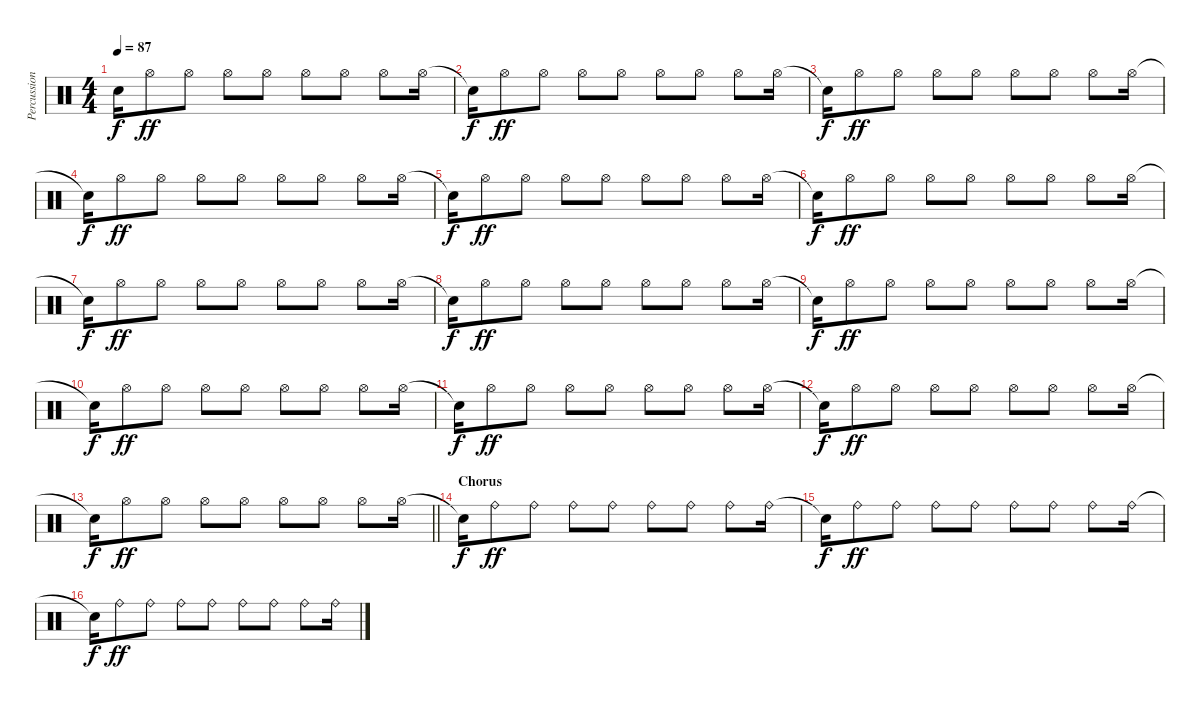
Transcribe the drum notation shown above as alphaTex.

\track ("Percussion" "Percussion") {instrument percussion}
\staff {score}
\articulation defaults
\ts (4 4)
\tempo 87
\clef neutral
\ks c "Snare (hit)"{t}.16{dy f} "Hi-Hat (open)".8{dy ff} "Hi-Hat (open)".8 "Hi-Hat (open)".8 "Hi-Hat (open)".8 "Hi-Hat (open)".8 "Hi-Hat (open)".8 "Hi-Hat (open)".8 "Hi-Hat (open)".16
|
"Snare (hit)"{t}.16{dy f} "Hi-Hat (open)".8{dy ff} "Hi-Hat (open)".8 "Hi-Hat (open)".8 "Hi-Hat (open)".8 "Hi-Hat (open)".8 "Hi-Hat (open)".8 "Hi-Hat (open)".8 "Hi-Hat (open)".16 |
"Snare (hit)"{t}.16{dy f} "Hi-Hat (open)".8{dy ff} "Hi-Hat (open)".8 "Hi-Hat (open)".8 "Hi-Hat (open)".8 "Hi-Hat (open)".8 "Hi-Hat (open)".8 "Hi-Hat (open)".8 "Hi-Hat (open)".16 |
"Snare (hit)"{t}.16{dy f} "Hi-Hat (open)".8{dy ff} "Hi-Hat (open)".8 "Hi-Hat (open)".8 "Hi-Hat (open)".8 "Hi-Hat (open)".8 "Hi-Hat (open)".8 "Hi-Hat (open)".8 "Hi-Hat (open)".16 |
"Snare (hit)"{t}.16{dy f} "Hi-Hat (open)".8{dy ff} "Hi-Hat (open)".8 "Hi-Hat (open)".8 "Hi-Hat (open)".8 "Hi-Hat (open)".8 "Hi-Hat (open)".8 "Hi-Hat (open)".8 "Hi-Hat (open)".16 |
"Snare (hit)"{t}.16{dy f} "Hi-Hat (open)".8{dy ff} "Hi-Hat (open)".8 "Hi-Hat (open)".8 "Hi-Hat (open)".8 "Hi-Hat (open)".8 "Hi-Hat (open)".8 "Hi-Hat (open)".8 "Hi-Hat (open)".16 |
"Snare (hit)"{t}.16{dy f} "Hi-Hat (open)".8{dy ff} "Hi-Hat (open)".8 "Hi-Hat (open)".8 "Hi-Hat (open)".8 "Hi-Hat (open)".8 "Hi-Hat (open)".8 "Hi-Hat (open)".8 "Hi-Hat (open)".16 |
"Snare (hit)"{t}.16{dy f} "Hi-Hat (open)".8{dy ff} "Hi-Hat (open)".8 "Hi-Hat (open)".8 "Hi-Hat (open)".8 "Hi-Hat (open)".8 "Hi-Hat (open)".8 "Hi-Hat (open)".8 "Hi-Hat (open)".16 |
"Snare (hit)"{t}.16{dy f} "Hi-Hat (open)".8{dy ff} "Hi-Hat (open)".8 "Hi-Hat (open)".8 "Hi-Hat (open)".8 "Hi-Hat (open)".8 "Hi-Hat (open)".8 "Hi-Hat (open)".8 "Hi-Hat (open)".16 |
"Snare (hit)"{t}.16{dy f} "Hi-Hat (open)".8{dy ff} "Hi-Hat (open)".8 "Hi-Hat (open)".8 "Hi-Hat (open)".8 "Hi-Hat (open)".8 "Hi-Hat (open)".8 "Hi-Hat (open)".8 "Hi-Hat (open)".16 |
"Snare (hit)"{t}.16{dy f} "Hi-Hat (open)".8{dy ff} "Hi-Hat (open)".8 "Hi-Hat (open)".8 "Hi-Hat (open)".8 "Hi-Hat (open)".8 "Hi-Hat (open)".8 "Hi-Hat (open)".8 "Hi-Hat (open)".16 |
"Snare (hit)"{t}.16{dy f} "Hi-Hat (open)".8{dy ff} "Hi-Hat (open)".8 "Hi-Hat (open)".8 "Hi-Hat (open)".8 "Hi-Hat (open)".8 "Hi-Hat (open)".8 "Hi-Hat (open)".8 "Hi-Hat (open)".16 |
\barLineRight lightlight "Snare (hit)"{t}.16{dy f} "Hi-Hat (open)".8{dy ff} "Hi-Hat (open)".8 "Hi-Hat (open)".8 "Hi-Hat (open)".8 "Hi-Hat (open)".8 "Hi-Hat (open)".8 "Hi-Hat (open)".8 "Hi-Hat (open)".16
|
\section ("" "Chorus")
"Snare (hit)"{t}.16{dy f} "Ride (bell)".8{dy ff} "Ride (bell)".8 "Ride (bell)".8 "Ride (bell)".8 "Ride (bell)".8 "Ride (bell)".8 "Ride (bell)".8 "Ride (bell)".16 |
"Snare (hit)"{t}.16{dy f} "Ride (bell)".8{dy ff} "Ride (bell)".8 "Ride (bell)".8 "Ride (bell)".8 "Ride (bell)".8 "Ride (bell)".8 "Ride (bell)".8 "Ride (bell)".16 |
"Snare (hit)"{t}.16{dy f} "Ride (bell)".8{dy ff} "Ride (bell)".8 "Ride (bell)".8 "Ride (bell)".8 "Ride (bell)".8 "Ride (bell)".8 "Ride (bell)".8 "Ride (bell)".16
